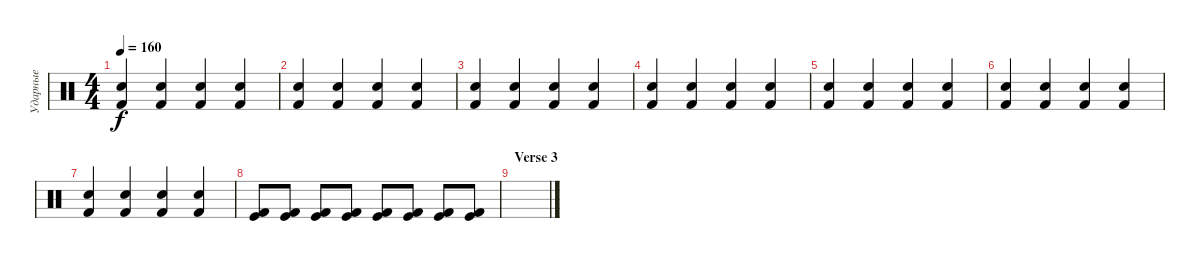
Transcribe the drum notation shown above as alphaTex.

\track ("Ударные" "Ударные") {instrument percussion}
\staff {score}
\articulation defaults
\ts (4 4)
\tempo 160
\clef neutral
\ks c
("Kick (hit) 2" "Electric Snare (hit)").4{dy f} ("Kick (hit) 2" "Electric Snare (hit)").4 ("Kick (hit) 2" "Electric Snare (hit)").4 ("Kick (hit) 2" "Electric Snare (hit)").4 |
("Kick (hit) 2" "Electric Snare (hit)").4 ("Kick (hit) 2" "Electric Snare (hit)").4 ("Kick (hit) 2" "Electric Snare (hit)").4 ("Kick (hit) 2" "Electric Snare (hit)").4 |
("Kick (hit) 2" "Electric Snare (hit)").4 ("Kick (hit) 2" "Electric Snare (hit)").4 ("Kick (hit) 2" "Electric Snare (hit)").4 ("Kick (hit) 2" "Electric Snare (hit)").4 |
("Kick (hit) 2" "Electric Snare (hit)").4 ("Kick (hit) 2" "Electric Snare (hit)").4 ("Kick (hit) 2" "Electric Snare (hit)").4 ("Kick (hit) 2" "Electric Snare (hit)").4 |
("Kick (hit) 2" "Electric Snare (hit)").4 ("Kick (hit) 2" "Electric Snare (hit)").4 ("Kick (hit) 2" "Electric Snare (hit)").4 ("Kick (hit) 2" "Electric Snare (hit)").4 |
("Kick (hit) 2" "Electric Snare (hit)").4 ("Kick (hit) 2" "Electric Snare (hit)").4 ("Kick (hit) 2" "Electric Snare (hit)").4 ("Kick (hit) 2" "Electric Snare (hit)").4 |
("Kick (hit) 2" "Electric Snare (hit)").4 ("Kick (hit) 2" "Electric Snare (hit)").4 ("Kick (hit) 2" "Electric Snare (hit)").4 ("Kick (hit) 2" "Electric Snare (hit)").4 |
("Kick (hit)" "Kick (hit) 2").8 ("Kick (hit)" "Kick (hit) 2").8 ("Kick (hit)" "Kick (hit) 2").8 ("Kick (hit)" "Kick (hit) 2").8 ("Kick (hit)" "Kick (hit) 2").8 ("Kick (hit)" "Kick (hit) 2").8 ("Kick (hit)" "Kick (hit) 2").8 ("Kick (hit)" "Kick (hit) 2").8 |
\section ("" "Verse 3")
